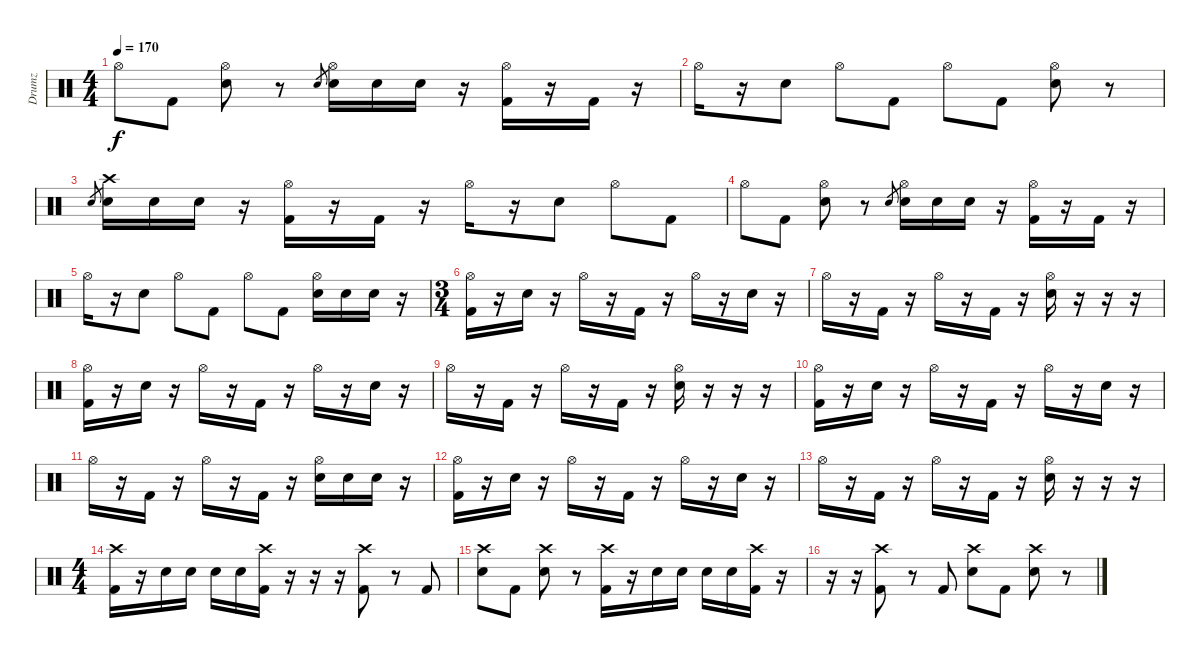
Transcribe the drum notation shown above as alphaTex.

\track ("Drumz" "Drumz") {instrument percussion}
\staff {score}
\articulation defaults
\ts (4 4)
\tempo 170
\clef neutral
\ks c "Hi-Hat (open)".8{dy f} "Kick (hit) 2".8
("Hi-Hat (open)" "Electric Snare (hit)").8 r.8 "Electric Snare (hit)".8{gr} ("Hi-Hat (open)" "Electric Snare (hit)").16 "Electric Snare (hit)".16 "Electric Snare (hit)".16 r.16 ("Hi-Hat (open)" "Kick (hit) 2").16 r.16 "Kick (hit) 2".16 r.16 |
"Hi-Hat (open)".16 r.16 "Electric Snare (hit)".8 "Hi-Hat (open)".8 "Kick (hit) 2".8 "Hi-Hat (open)".8 "Kick (hit) 2".8 ("Hi-Hat (open)" "Electric Snare (hit)").8 r.8 |
"Electric Snare (hit)".8{gr} ("Crash high (hit)" "Electric Snare (hit)").16 "Electric Snare (hit)".16 "Electric Snare (hit)".16 r.16 ("Hi-Hat (open)" "Kick (hit) 2").16 r.16 "Kick (hit) 2".16 r.16 "Hi-Hat (open)".16 r.16 "Electric Snare (hit)".8 "Hi-Hat (open)".8 "Kick (hit) 2".8 |
"Hi-Hat (open)".8 "Kick (hit) 2".8 ("Hi-Hat (open)" "Electric Snare (hit)").8 r.8 "Electric Snare (hit)".8{gr} ("Hi-Hat (open)" "Electric Snare (hit)").16 "Electric Snare (hit)".16 "Electric Snare (hit)".16 r.16 ("Hi-Hat (open)" "Kick (hit) 2").16 r.16 "Kick (hit) 2".16 r.16 |
"Hi-Hat (open)".16 r.16 "Electric Snare (hit)".8 "Hi-Hat (open)".8 "Kick (hit) 2".8 "Hi-Hat (open)".8 "Kick (hit) 2".8 ("Hi-Hat (open)" "Electric Snare (hit)").16 "Electric Snare (hit)".16 "Electric Snare (hit)".16 r.16 |
\ts (3 4)
("Hi-Hat (open)" "Kick (hit) 2").16 r.16 "Electric Snare (hit)".16 r.16 "Hi-Hat (open)".16 r.16 "Kick (hit) 2".16 r.16 "Hi-Hat (open)".16 r.16 "Electric Snare (hit)".16 r.16 |
"Hi-Hat (open)".16 r.16 "Kick (hit) 2".16 r.16 "Hi-Hat (open)".16 r.16 "Kick (hit) 2".16 r.16 ("Hi-Hat (open)" "Electric Snare (hit)").16 r.16 r.16 r.16 |
("Hi-Hat (open)" "Kick (hit) 2").16 r.16 "Electric Snare (hit)".16 r.16 "Hi-Hat (open)".16 r.16 "Kick (hit) 2".16 r.16 "Hi-Hat (open)".16 r.16 "Electric Snare (hit)".16 r.16 |
"Hi-Hat (open)".16 r.16 "Kick (hit) 2".16 r.16 "Hi-Hat (open)".16 r.16 "Kick (hit) 2".16 r.16 ("Hi-Hat (open)" "Electric Snare (hit)").16 r.16 r.16 r.16 |
("Hi-Hat (open)" "Kick (hit) 2").16 r.16 "Electric Snare (hit)".16 r.16 "Hi-Hat (open)".16 r.16 "Kick (hit) 2".16 r.16 "Hi-Hat (open)".16 r.16 "Electric Snare (hit)".16 r.16 |
"Hi-Hat (open)".16 r.16 "Kick (hit) 2".16 r.16 "Hi-Hat (open)".16 r.16 "Kick (hit) 2".16 r.16 ("Hi-Hat (open)" "Electric Snare (hit)").16 "Electric Snare (hit)".16 "Electric Snare (hit)".16 r.16 |
("Hi-Hat (open)" "Kick (hit) 2").16 r.16 "Electric Snare (hit)".16 r.16 "Hi-Hat (open)".16 r.16 "Kick (hit) 2".16 r.16 "Hi-Hat (open)".16 r.16 "Electric Snare (hit)".16 r.16 |
"Hi-Hat (open)".16 r.16 "Kick (hit) 2".16 r.16 "Hi-Hat (open)".16 r.16 "Kick (hit) 2".16 r.16 ("Hi-Hat (open)" "Electric Snare (hit)").16 r.16 r.16 r.16 |
\ts (4 4)
("Crash high (hit)" "Kick (hit) 2").16 r.16 "Electric Snare (hit)".16 "Electric Snare (hit)".16 "Electric Snare (hit)".16 "Electric Snare (hit)".16 ("Crash high (hit)" "Kick (hit) 2").16 r.16 r.16 r.16 ("Crash high (hit)" "Kick (hit) 2").8 r.8 "Kick (hit) 2".8 |
("Crash high (hit)" "Electric Snare (hit)").8 "Kick (hit) 2".8 ("Crash high (hit)" "Electric Snare (hit)").8 r.8 ("Crash high (hit)" "Kick (hit) 2").16 r.16 "Electric Snare (hit)".16 "Electric Snare (hit)".16 "Electric Snare (hit)".16 "Electric Snare (hit)".16 ("Crash high (hit)" "Kick (hit) 2").16 r.16 |
r.16 r.16 ("Crash high (hit)" "Kick (hit) 2").8 r.8 "Kick (hit) 2".8 ("Crash high (hit)" "Electric Snare (hit)").8 "Kick (hit) 2".8 ("Crash high (hit)" "Electric Snare (hit)").8 r.8
